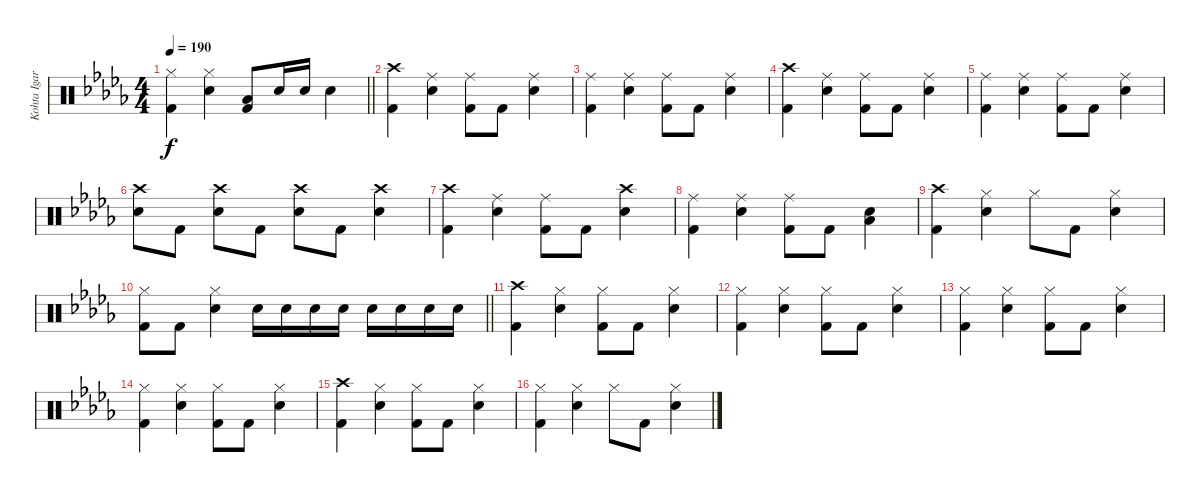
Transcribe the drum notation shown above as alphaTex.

\track ("Kohta Igarashi" "Kohta Igar") {instrument percussion}
\staff {score}
\articulation defaults
\ts (4 4)
\tempo 190
\clef neutral
\barLineRight lightlight
\ks db
("Hi-Hat (closed)" "Kick (hit) 2").4{dy f} ("Hi-Hat (closed)" "Electric Snare (hit)").4 ("Low Floor Tom (hit)" "Kick (hit) 2").8 "Electric Snare (hit)".16 "Electric Snare (hit)".16 "Electric Snare (hit)".4 |
("Crash high (hit)" "Kick (hit) 2").4 ("Ride (middle)" "Electric Snare (hit)").4 ("Ride (middle)" "Kick (hit) 2").8 "Kick (hit) 2".8 ("Ride (middle)" "Electric Snare (hit)").4 |
("Ride (middle)" "Kick (hit) 2").4 ("Ride (middle)" "Electric Snare (hit)").4 ("Ride (middle)" "Kick (hit) 2").8 "Kick (hit) 2".8 ("Ride (middle)" "Electric Snare (hit)").4 |
("Crash high (hit)" "Kick (hit) 2").4 ("Ride (middle)" "Electric Snare (hit)").4 ("Ride (middle)" "Kick (hit) 2").8 "Kick (hit) 2".8 ("Ride (middle)" "Electric Snare (hit)").4 |
("Ride (middle)" "Kick (hit) 2").4 ("Ride (middle)" "Electric Snare (hit)").4 ("Ride (middle)" "Kick (hit) 2").8 "Kick (hit) 2".8 ("Ride (middle)" "Electric Snare (hit)").4 |
("Crash high (hit)" "Electric Snare (hit)").8 "Kick (hit) 2".8 ("Crash high (hit)" "Electric Snare (hit)").8 "Kick (hit) 2".8 ("Crash high (hit)" "Electric Snare (hit)").8 "Kick (hit) 2".8 ("Crash high (hit)" "Electric Snare (hit)").4 |
("Crash high (hit)" "Kick (hit) 2").4 ("Ride (middle)" "Electric Snare (hit)").4 ("Ride (middle)" "Kick (hit) 2").8 "Kick (hit) 2".8 ("Crash high (hit)" "Electric Snare (hit)").4 |
("Ride (middle)" "Kick (hit) 2").4 ("Ride (middle)" "Electric Snare (hit)").4 ("Ride (middle)" "Kick (hit) 2").8 "Kick (hit) 2".8 ("Electric Snare (hit)" "Low Floor Tom (hit)").4 |
("Crash high (hit)" "Kick (hit) 2").4 ("Hi-Hat (closed)" "Electric Snare (hit)").4 "Hi-Hat (closed)".8 "Kick (hit) 2".8 ("Hi-Hat (closed)" "Electric Snare (hit)").4 |
\barLineRight lightlight
("Hi-Hat (closed)" "Kick (hit) 2").8 "Kick (hit) 2".8 ("Hi-Hat (closed)" "Electric Snare (hit)").4 "Electric Snare (hit)".16 "Electric Snare (hit)".16 "Electric Snare (hit)".16 "Electric Snare (hit)".16 "Electric Snare (hit)".16 "Electric Snare (hit)".16 "Electric Snare (hit)".16 "Electric Snare (hit)".16 |
("Crash high (hit)" "Kick (hit) 2").4 ("Hi-Hat (closed)" "Electric Snare (hit)").4 ("Hi-Hat (closed)" "Kick (hit) 2").8 "Kick (hit) 2".8 ("Hi-Hat (closed)" "Electric Snare (hit)").4 |
("Hi-Hat (closed)" "Kick (hit) 2").4 ("Hi-Hat (closed)" "Electric Snare (hit)").4 ("Hi-Hat (closed)" "Kick (hit) 2").8 "Kick (hit) 2".8 ("Hi-Hat (closed)" "Electric Snare (hit)").4 |
("Hi-Hat (closed)" "Kick (hit) 2").4 ("Hi-Hat (closed)" "Electric Snare (hit)").4 ("Hi-Hat (closed)" "Kick (hit) 2").8 "Kick (hit) 2".8 ("Hi-Hat (closed)" "Electric Snare (hit)").4 |
("Hi-Hat (closed)" "Kick (hit) 2").4 ("Hi-Hat (closed)" "Electric Snare (hit)").4 ("Hi-Hat (closed)" "Kick (hit) 2").8 "Kick (hit) 2".8 ("Hi-Hat (closed)" "Electric Snare (hit)").4 |
("Crash high (hit)" "Kick (hit) 2").4 ("Hi-Hat (closed)" "Electric Snare (hit)").4 ("Hi-Hat (closed)" "Kick (hit) 2").8 "Kick (hit) 2".8 ("Hi-Hat (closed)" "Electric Snare (hit)").4 |
("Hi-Hat (closed)" "Kick (hit) 2").4 ("Hi-Hat (closed)" "Electric Snare (hit)").4 "Hi-Hat (closed)".8 "Kick (hit) 2".8 ("Hi-Hat (closed)" "Electric Snare (hit)").4
